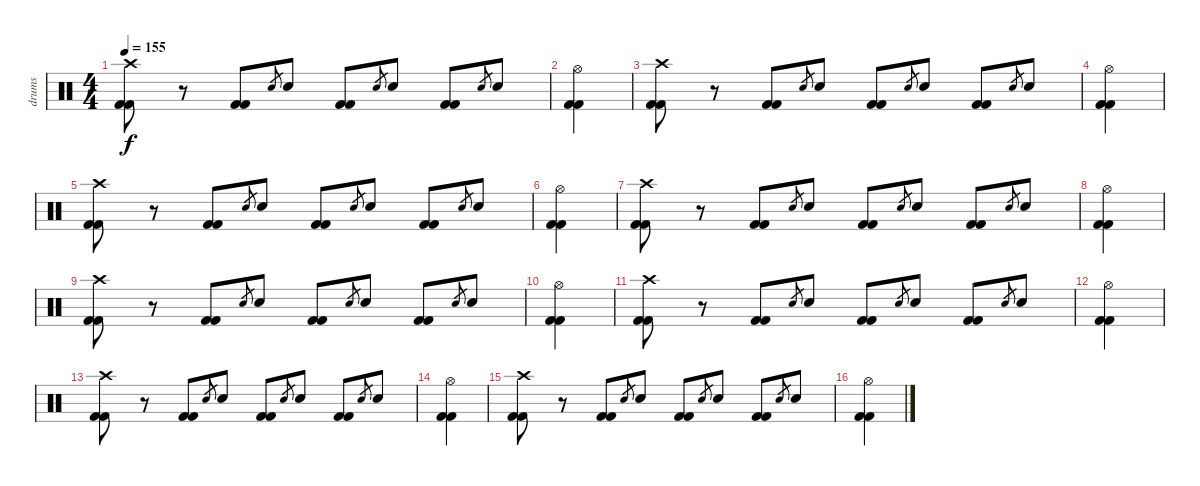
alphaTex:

\track ("drums" "drums") {instrument percussion}
\staff {score}
\articulation defaults
\ts (4 4)
\tempo 155
\clef neutral
\ks c
("Crash high (hit)" "Kick (hit) 2" "Kick (hit) 2").8{dy f} r.8 ("Kick (hit) 2" "Kick (hit) 2").8 "Electric Snare (hit)".8{gr} "Electric Snare (hit)".8 ("Kick (hit) 2" "Kick (hit) 2").8 "Electric Snare (hit)".8{gr} "Electric Snare (hit)".8 ("Kick (hit) 2" "Kick (hit) 2").8 "Electric Snare (hit)".8{gr} "Electric Snare (hit)".8 |
("Hi-Hat (open)" "Kick (hit) 2" "Kick (hit) 2").4 |
("Crash high (hit)" "Kick (hit) 2" "Kick (hit) 2").8 r.8 ("Kick (hit) 2" "Kick (hit) 2").8 "Electric Snare (hit)".8{gr} "Electric Snare (hit)".8 ("Kick (hit) 2" "Kick (hit) 2").8 "Electric Snare (hit)".8{gr} "Electric Snare (hit)".8 ("Kick (hit) 2" "Kick (hit) 2").8 "Electric Snare (hit)".8{gr} "Electric Snare (hit)".8 |
("Hi-Hat (open)" "Kick (hit) 2" "Kick (hit) 2").4 |
("Crash high (hit)" "Kick (hit) 2" "Kick (hit) 2").8 r.8 ("Kick (hit) 2" "Kick (hit) 2").8 "Electric Snare (hit)".8{gr} "Electric Snare (hit)".8 ("Kick (hit) 2" "Kick (hit) 2").8 "Electric Snare (hit)".8{gr} "Electric Snare (hit)".8 ("Kick (hit) 2" "Kick (hit) 2").8 "Electric Snare (hit)".8{gr} "Electric Snare (hit)".8 |
("Hi-Hat (open)" "Kick (hit) 2" "Kick (hit) 2").4 |
("Crash high (hit)" "Kick (hit) 2" "Kick (hit) 2").8 r.8 ("Kick (hit) 2" "Kick (hit) 2").8 "Electric Snare (hit)".8{gr} "Electric Snare (hit)".8 ("Kick (hit) 2" "Kick (hit) 2").8 "Electric Snare (hit)".8{gr} "Electric Snare (hit)".8 ("Kick (hit) 2" "Kick (hit) 2").8 "Electric Snare (hit)".8{gr} "Electric Snare (hit)".8 |
("Hi-Hat (open)" "Kick (hit) 2" "Kick (hit) 2").4 |
("Crash high (hit)" "Kick (hit) 2" "Kick (hit) 2").8 r.8 ("Kick (hit) 2" "Kick (hit) 2").8 "Electric Snare (hit)".8{gr} "Electric Snare (hit)".8 ("Kick (hit) 2" "Kick (hit) 2").8 "Electric Snare (hit)".8{gr} "Electric Snare (hit)".8 ("Kick (hit) 2" "Kick (hit) 2").8 "Electric Snare (hit)".8{gr} "Electric Snare (hit)".8 |
("Hi-Hat (open)" "Kick (hit) 2" "Kick (hit) 2").4 |
("Crash high (hit)" "Kick (hit) 2" "Kick (hit) 2").8 r.8 ("Kick (hit) 2" "Kick (hit) 2").8 "Electric Snare (hit)".8{gr} "Electric Snare (hit)".8 ("Kick (hit) 2" "Kick (hit) 2").8 "Electric Snare (hit)".8{gr} "Electric Snare (hit)".8 ("Kick (hit) 2" "Kick (hit) 2").8 "Electric Snare (hit)".8{gr} "Electric Snare (hit)".8 |
("Hi-Hat (open)" "Kick (hit) 2" "Kick (hit) 2").4 |
("Crash high (hit)" "Kick (hit) 2" "Kick (hit) 2").8 r.8 ("Kick (hit) 2" "Kick (hit) 2").8 "Electric Snare (hit)".8{gr} "Electric Snare (hit)".8 ("Kick (hit) 2" "Kick (hit) 2").8 "Electric Snare (hit)".8{gr} "Electric Snare (hit)".8 ("Kick (hit) 2" "Kick (hit) 2").8 "Electric Snare (hit)".8{gr} "Electric Snare (hit)".8 |
("Hi-Hat (open)" "Kick (hit) 2" "Kick (hit) 2").4 |
("Crash high (hit)" "Kick (hit) 2" "Kick (hit) 2").8 r.8 ("Kick (hit) 2" "Kick (hit) 2").8 "Electric Snare (hit)".8{gr} "Electric Snare (hit)".8 ("Kick (hit) 2" "Kick (hit) 2").8 "Electric Snare (hit)".8{gr} "Electric Snare (hit)".8 ("Kick (hit) 2" "Kick (hit) 2").8 "Electric Snare (hit)".8{gr} "Electric Snare (hit)".8 |
("Hi-Hat (open)" "Kick (hit) 2" "Kick (hit) 2").4
